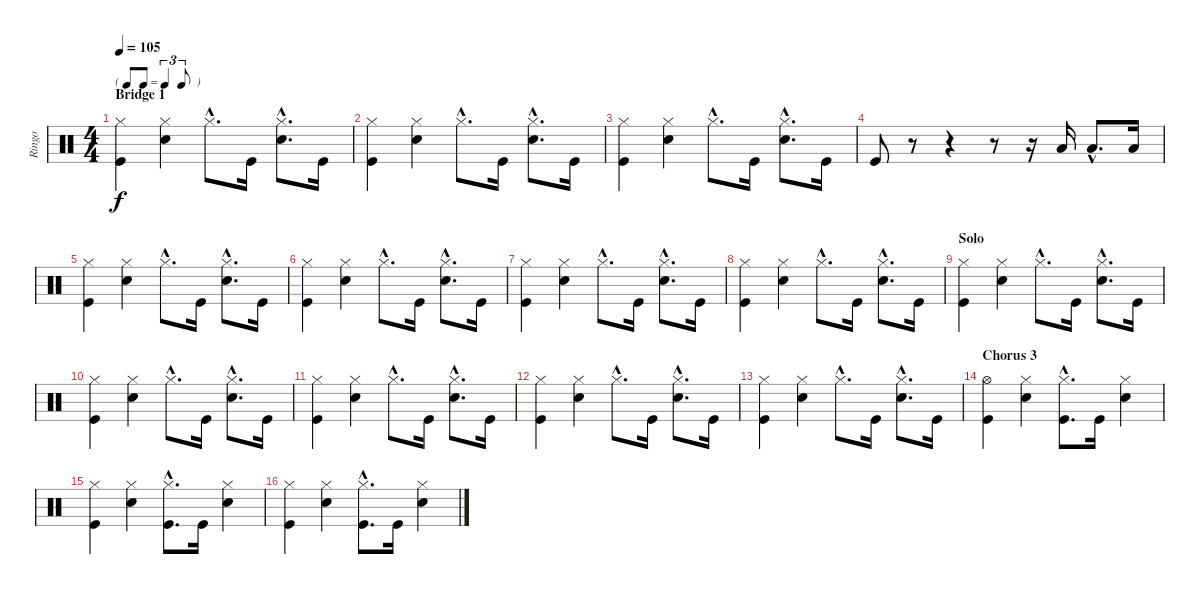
\track ("Ringo" "Ringo") {instrument percussion}
\staff {score}
\articulation defaults
\ts (4 4)
\tf triplet8th
\section ("" "Bridge 1")
\tempo 105
\clef neutral
\ks c
("Hi-Hat (closed)" "Kick (hit)").4{dy f} ("Hi-Hat (closed)" "Snare (hit) 2").4 "Hi-Hat (closed)"{hac}.8{d} "Kick (hit)".16 ("Hi-Hat (closed)"{hac} "Snare (hit) 2"{hac}).8{d} "Kick (hit)".16 |
("Hi-Hat (closed)" "Kick (hit)").4 ("Hi-Hat (closed)" "Snare (hit) 2").4 "Hi-Hat (closed)"{hac}.8{d} "Kick (hit)".16 ("Hi-Hat (closed)"{hac} "Snare (hit) 2"{hac}).8{d} "Kick (hit)".16 |
("Hi-Hat (closed)" "Kick (hit)").4 ("Hi-Hat (closed)" "Snare (hit) 2").4 "Hi-Hat (closed)"{hac}.8{d} "Kick (hit)".16 ("Hi-Hat (closed)"{hac} "Snare (hit) 2"{hac}).8{d} "Kick (hit)".16 |
"Kick (hit)".8 r.8 r.4 r.8 r.16 "Low Floor Tom (hit)".16 "Low Floor Tom (hit)"{hac}.8{d} "Low Floor Tom (hit)".16 |
("Hi-Hat (closed)" "Kick (hit)").4 ("Hi-Hat (closed)" "Snare (hit) 2").4 "Hi-Hat (closed)"{hac}.8{d} "Kick (hit)".16 ("Hi-Hat (closed)"{hac} "Snare (hit) 2"{hac}).8{d} "Kick (hit)".16 |
("Hi-Hat (closed)" "Kick (hit)").4 ("Hi-Hat (closed)" "Snare (hit) 2").4 "Hi-Hat (closed)"{hac}.8{d} "Kick (hit)".16 ("Hi-Hat (closed)"{hac} "Snare (hit) 2"{hac}).8{d} "Kick (hit)".16 |
("Hi-Hat (closed)" "Kick (hit)").4 ("Hi-Hat (closed)" "Snare (hit) 2").4 "Hi-Hat (closed)"{hac}.8{d} "Kick (hit)".16 ("Hi-Hat (closed)"{hac} "Snare (hit) 2"{hac}).8{d} "Kick (hit)".16 |
("Hi-Hat (closed)" "Kick (hit)").4 ("Hi-Hat (closed)" "Snare (hit) 2").4 "Hi-Hat (closed)"{hac}.8{d} "Kick (hit)".16 ("Hi-Hat (closed)"{hac} "Snare (hit) 2"{hac}).8{d} "Kick (hit)".16 |
\section ("" "Solo")
("Hi-Hat (closed)" "Kick (hit)").4 ("Hi-Hat (closed)" "Snare (hit) 2").4 "Hi-Hat (closed)"{hac}.8{d} "Kick (hit)".16 ("Hi-Hat (closed)"{hac} "Snare (hit) 2"{hac}).8{d} "Kick (hit)".16 |
("Hi-Hat (closed)" "Kick (hit)").4 ("Hi-Hat (closed)" "Snare (hit) 2").4 "Hi-Hat (closed)"{hac}.8{d} "Kick (hit)".16 ("Hi-Hat (closed)"{hac} "Snare (hit) 2"{hac}).8{d} "Kick (hit)".16 |
("Hi-Hat (closed)" "Kick (hit)").4 ("Hi-Hat (closed)" "Snare (hit) 2").4 "Hi-Hat (closed)"{hac}.8{d} "Kick (hit)".16 ("Hi-Hat (closed)"{hac} "Snare (hit) 2"{hac}).8{d} "Kick (hit)".16 |
("Hi-Hat (closed)" "Kick (hit)").4 ("Hi-Hat (closed)" "Snare (hit) 2").4 "Hi-Hat (closed)"{hac}.8{d} "Kick (hit)".16 ("Hi-Hat (closed)"{hac} "Snare (hit) 2"{hac}).8{d} "Kick (hit)".16 |
("Hi-Hat (closed)" "Kick (hit)").4 ("Hi-Hat (closed)" "Snare (hit) 2").4 "Hi-Hat (closed)"{hac}.8{d} "Kick (hit)".16 ("Hi-Hat (closed)"{hac} "Snare (hit) 2"{hac}).8{d} "Kick (hit)".16 |
\section ("" "Chorus 3")
("Hi-Hat (open)" "Kick (hit)").4 ("Hi-Hat (closed)" "Snare (hit) 2").4 ("Hi-Hat (closed)"{hac} "Kick (hit)"{hac}).8{d} "Kick (hit)".16 ("Hi-Hat (closed)" "Snare (hit) 2").4 |
("Hi-Hat (closed)" "Kick (hit)").4 ("Hi-Hat (closed)" "Snare (hit) 2").4 ("Hi-Hat (closed)"{hac} "Kick (hit)"{hac}).8{d} "Kick (hit)".16 ("Hi-Hat (closed)" "Snare (hit) 2").4 |
("Hi-Hat (closed)" "Kick (hit)").4 ("Hi-Hat (closed)" "Snare (hit) 2").4 ("Hi-Hat (closed)"{hac} "Kick (hit)"{hac}).8{d} "Kick (hit)".16 ("Hi-Hat (closed)" "Snare (hit) 2").4
